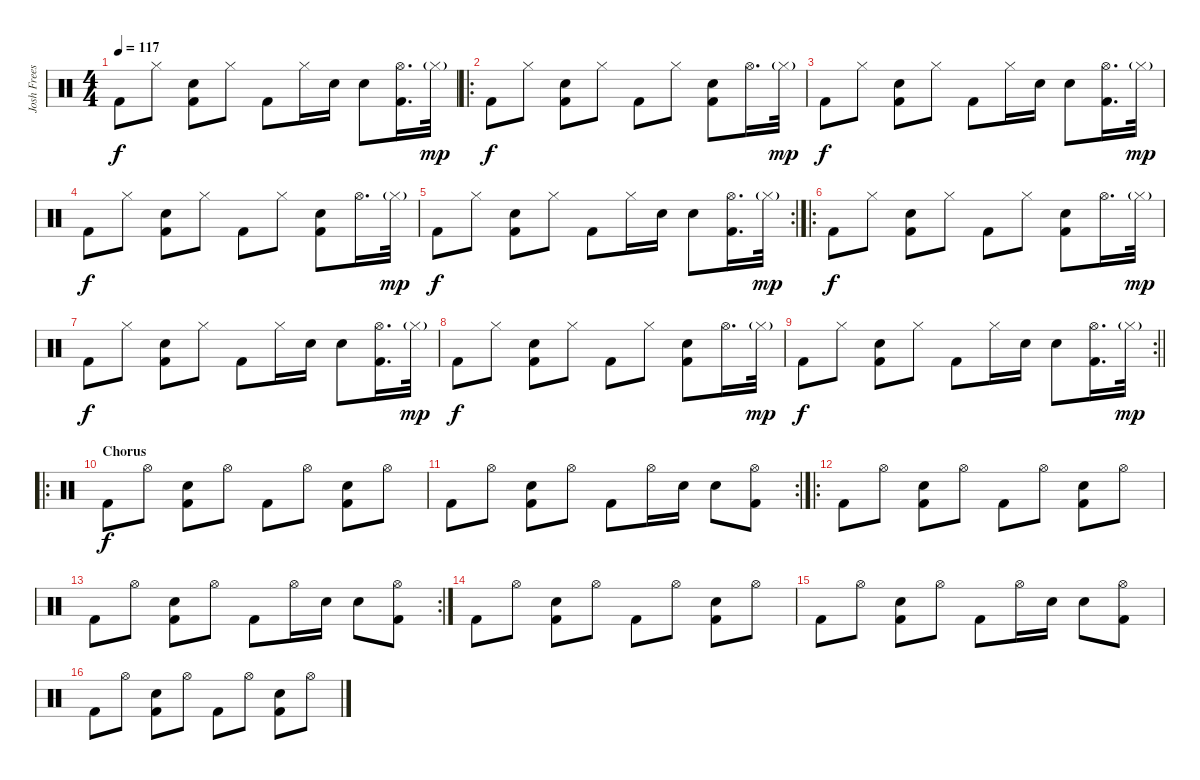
\track ("Josh Freese" "Josh Frees") {instrument percussion}
\staff {score}
\articulation defaults
\ts (4 4)
\tempo 117
\clef neutral
\ks c "Kick (hit) 2".8{dy f} "Hi-Hat (closed)".8
("Electric Snare (hit)" "Kick (hit) 2").8 "Hi-Hat (closed)".8 "Kick (hit) 2".8 "Hi-Hat (closed)".16 "Electric Snare (hit)".16 "Electric Snare (hit)".8 ("Hi-Hat (open)" "Kick (hit) 2").16{d} "Hi-Hat (closed)"{g}.32{dy mp} |
\ro "Kick (hit) 2".8{dy f} "Hi-Hat (closed)".8
("Electric Snare (hit)" "Kick (hit) 2").8 "Hi-Hat (closed)".8 "Kick (hit) 2".8 "Hi-Hat (closed)".8 ("Electric Snare (hit)" "Kick (hit) 2").8 "Hi-Hat (open)".16{d} "Hi-Hat (closed)"{g}.32{dy mp} |
"Kick (hit) 2".8{dy f} "Hi-Hat (closed)".8 ("Electric Snare (hit)" "Kick (hit) 2").8 "Hi-Hat (closed)".8 "Kick (hit) 2".8 "Hi-Hat (closed)".16 "Electric Snare (hit)".16 "Electric Snare (hit)".8 ("Hi-Hat (open)" "Kick (hit) 2").16{d} "Hi-Hat (closed)"{g}.32{dy mp} |
"Kick (hit) 2".8{dy f} "Hi-Hat (closed)".8 ("Electric Snare (hit)" "Kick (hit) 2").8 "Hi-Hat (closed)".8 "Kick (hit) 2".8 "Hi-Hat (closed)".8 ("Electric Snare (hit)" "Kick (hit) 2").8 "Hi-Hat (open)".16{d} "Hi-Hat (closed)"{g}.32{dy mp} |
\rc 2 "Kick (hit) 2".8{dy f} "Hi-Hat (closed)".8
("Electric Snare (hit)" "Kick (hit) 2").8 "Hi-Hat (closed)".8 "Kick (hit) 2".8 "Hi-Hat (closed)".16 "Electric Snare (hit)".16 "Electric Snare (hit)".8 ("Hi-Hat (open)" "Kick (hit) 2").16{d} "Hi-Hat (closed)"{g}.32{dy mp} |
\ro "Kick (hit) 2".8{dy f} "Hi-Hat (closed)".8
("Electric Snare (hit)" "Kick (hit) 2").8 "Hi-Hat (closed)".8 "Kick (hit) 2".8 "Hi-Hat (closed)".8 ("Electric Snare (hit)" "Kick (hit) 2").8 "Hi-Hat (open)".16{d} "Hi-Hat (closed)"{g}.32{dy mp} |
"Kick (hit) 2".8{dy f} "Hi-Hat (closed)".8 ("Electric Snare (hit)" "Kick (hit) 2").8 "Hi-Hat (closed)".8 "Kick (hit) 2".8 "Hi-Hat (closed)".16 "Electric Snare (hit)".16 "Electric Snare (hit)".8 ("Hi-Hat (open)" "Kick (hit) 2").16{d} "Hi-Hat (closed)"{g}.32{dy mp} |
"Kick (hit) 2".8{dy f} "Hi-Hat (closed)".8 ("Electric Snare (hit)" "Kick (hit) 2").8 "Hi-Hat (closed)".8 "Kick (hit) 2".8 "Hi-Hat (closed)".8 ("Electric Snare (hit)" "Kick (hit) 2").8 "Hi-Hat (open)".16{d} "Hi-Hat (closed)"{g}.32{dy mp} |
\rc 2
\barLineRight lightlight "Kick (hit) 2".8{dy f} "Hi-Hat (closed)".8
("Electric Snare (hit)" "Kick (hit) 2").8 "Hi-Hat (closed)".8 "Kick (hit) 2".8 "Hi-Hat (closed)".16 "Electric Snare (hit)".16 "Electric Snare (hit)".8 ("Hi-Hat (open)" "Kick (hit) 2").16{d} "Hi-Hat (closed)"{g}.32{dy mp} |
\ro
\section ("" "Chorus")
"Kick (hit) 2".8{dy f} "Hi-Hat (open)".8 ("Electric Snare (hit)" "Kick (hit) 2").8 "Hi-Hat (open)".8 "Kick (hit) 2".8 "Hi-Hat (open)".8 ("Electric Snare (hit)" "Kick (hit) 2").8 "Hi-Hat (open)".8 |
\rc 2 "Kick (hit) 2".8 "Hi-Hat (open)".8
("Electric Snare (hit)" "Kick (hit) 2").8 "Hi-Hat (open)".8 "Kick (hit) 2".8 "Hi-Hat (open)".16 "Electric Snare (hit)".16 "Electric Snare (hit)".8 ("Hi-Hat (open)" "Kick (hit) 2").8 |
\ro "Kick (hit) 2".8 "Hi-Hat (open)".8
("Electric Snare (hit)" "Kick (hit) 2").8 "Hi-Hat (open)".8 "Kick (hit) 2".8 "Hi-Hat (open)".8 ("Electric Snare (hit)" "Kick (hit) 2").8 "Hi-Hat (open)".8 |
\rc 2 "Kick (hit) 2".8 "Hi-Hat (open)".8
("Electric Snare (hit)" "Kick (hit) 2").8 "Hi-Hat (open)".8 "Kick (hit) 2".8 "Hi-Hat (open)".16 "Electric Snare (hit)".16 "Electric Snare (hit)".8 ("Hi-Hat (open)" "Kick (hit) 2").8 |
"Kick (hit) 2".8 "Hi-Hat (open)".8 ("Electric Snare (hit)" "Kick (hit) 2").8 "Hi-Hat (open)".8 "Kick (hit) 2".8 "Hi-Hat (open)".8 ("Electric Snare (hit)" "Kick (hit) 2").8 "Hi-Hat (open)".8 |
"Kick (hit) 2".8 "Hi-Hat (open)".8 ("Electric Snare (hit)" "Kick (hit) 2").8 "Hi-Hat (open)".8 "Kick (hit) 2".8 "Hi-Hat (open)".16 "Electric Snare (hit)".16 "Electric Snare (hit)".8 ("Hi-Hat (open)" "Kick (hit) 2").8 |
"Kick (hit) 2".8 "Hi-Hat (open)".8 ("Electric Snare (hit)" "Kick (hit) 2").8 "Hi-Hat (open)".8 "Kick (hit) 2".8 "Hi-Hat (open)".8 ("Electric Snare (hit)" "Kick (hit) 2").8 "Hi-Hat (open)".8
